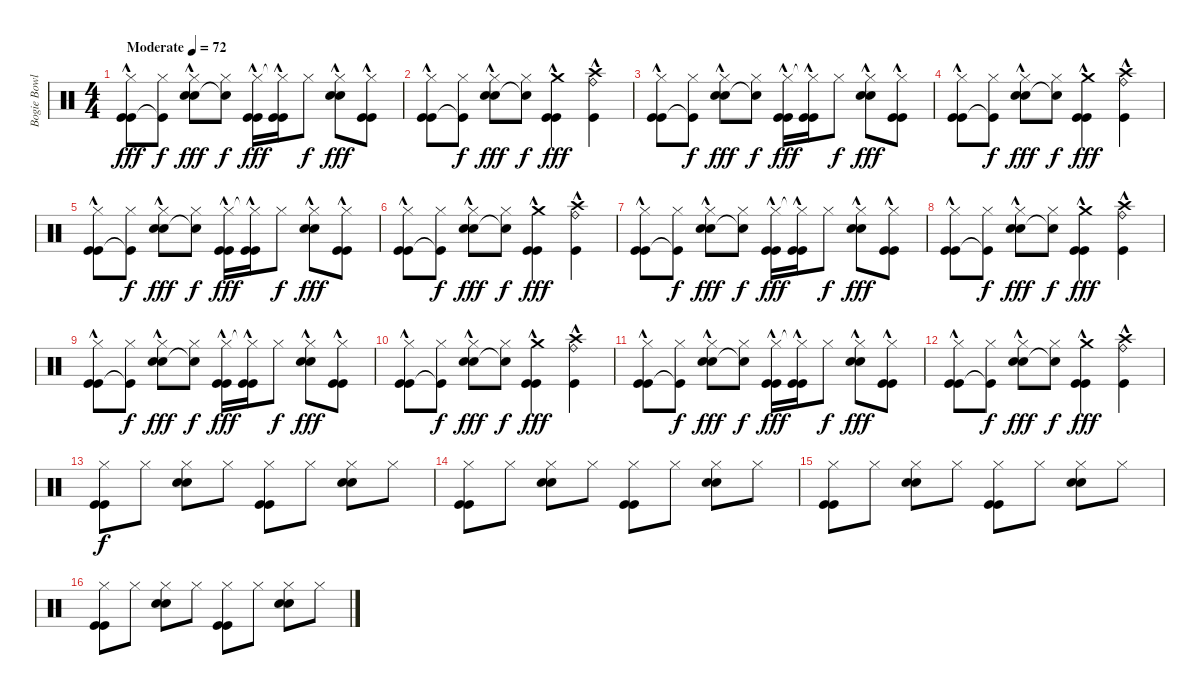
\track ("Bogie Bowles" "Bogie Bowl") {instrument percussion}
\staff {score}
\articulation defaults
\ts (4 4)
\tempo (72 "Moderate")
\clef neutral
\ks c
("Hi-Hat (closed)" "Kick (hit)"{hac} "Kick (hit)"{hac}).8{dy fff} ("Hi-Hat (closed)" "Kick (hit)"{t}).8{dy f} ("Hi-Hat (closed)" "Snare (hit) 2"{hac} "Snare (hit) 2"{hac}).8{dy fff} ("Hi-Hat (closed)" "Snare (hit) 2"{t}).8{dy f} ("Hi-Hat (closed)" "Kick (hit)"{hac} "Kick (hit)"{hac}).16{dy fff} ("Hi-Hat (closed)"{t} "Kick (hit)"{hac} "Kick (hit)"{hac}).16 "Hi-Hat (closed)".8{dy f} ("Hi-Hat (closed)" "Snare (hit) 2"{hac} "Snare (hit) 2"{hac}).8{dy fff} ("Hi-Hat (closed)" "Kick (hit)"{hac} "Kick (hit)"{hac}).8 |
("Hi-Hat (closed)" "Kick (hit)"{hac} "Kick (hit)"{hac}).8 ("Hi-Hat (closed)" "Kick (hit)"{t}).8{dy f} ("Hi-Hat (closed)" "Snare (hit) 2"{hac} "Snare (hit) 2"{hac}).8{dy fff} ("Hi-Hat (closed)" "Snare (hit) 2"{t}).8{dy f} ("Crash medium (hit)" "Kick (hit)"{hac} "Kick (hit)"{hac}).4{dy fff} ("Crash high (hit)" "Kick (hit)"{hac} "Ride (bell)"{hac}).4 |
("Hi-Hat (closed)" "Kick (hit)"{hac} "Kick (hit)"{hac}).8 ("Hi-Hat (closed)" "Kick (hit)"{t}).8{dy f} ("Hi-Hat (closed)" "Snare (hit) 2"{hac} "Snare (hit) 2"{hac}).8{dy fff} ("Hi-Hat (closed)" "Snare (hit) 2"{t}).8{dy f} ("Hi-Hat (closed)" "Kick (hit)"{hac} "Kick (hit)"{hac}).16{dy fff} ("Hi-Hat (closed)"{t} "Kick (hit)"{hac} "Kick (hit)"{hac}).16 "Hi-Hat (closed)".8{dy f} ("Hi-Hat (closed)" "Snare (hit) 2"{hac} "Snare (hit) 2"{hac}).8{dy fff} ("Hi-Hat (closed)" "Kick (hit)"{hac} "Kick (hit)"{hac}).8 |
("Hi-Hat (closed)" "Kick (hit)"{hac} "Kick (hit)"{hac}).8 ("Hi-Hat (closed)" "Kick (hit)"{t}).8{dy f} ("Hi-Hat (closed)" "Snare (hit) 2"{hac} "Snare (hit) 2"{hac}).8{dy fff} ("Hi-Hat (closed)" "Snare (hit) 2"{t}).8{dy f} ("Crash medium (hit)" "Kick (hit)"{hac} "Kick (hit)"{hac}).4{dy fff} ("Crash high (hit)" "Kick (hit)"{hac} "Ride (bell)"{hac}).4 |
("Hi-Hat (closed)" "Kick (hit)"{hac} "Kick (hit)"{hac}).8 ("Hi-Hat (closed)" "Kick (hit)"{t}).8{dy f} ("Hi-Hat (closed)" "Snare (hit) 2"{hac} "Snare (hit) 2"{hac}).8{dy fff} ("Hi-Hat (closed)" "Snare (hit) 2"{t}).8{dy f} ("Hi-Hat (closed)" "Kick (hit)"{hac} "Kick (hit)"{hac}).16{dy fff} ("Hi-Hat (closed)"{t} "Kick (hit)"{hac} "Kick (hit)"{hac}).16 "Hi-Hat (closed)".8{dy f} ("Hi-Hat (closed)" "Snare (hit) 2"{hac} "Snare (hit) 2"{hac}).8{dy fff} ("Hi-Hat (closed)" "Kick (hit)"{hac} "Kick (hit)"{hac}).8 |
("Hi-Hat (closed)" "Kick (hit)"{hac} "Kick (hit)"{hac}).8 ("Hi-Hat (closed)" "Kick (hit)"{t}).8{dy f} ("Hi-Hat (closed)" "Snare (hit) 2"{hac} "Snare (hit) 2"{hac}).8{dy fff} ("Hi-Hat (closed)" "Snare (hit) 2"{t}).8{dy f} ("Crash medium (hit)" "Kick (hit)"{hac} "Kick (hit)"{hac}).4{dy fff} ("Crash high (hit)" "Kick (hit)"{hac} "Ride (bell)"{hac}).4 |
("Hi-Hat (closed)" "Kick (hit)"{hac} "Kick (hit)"{hac}).8 ("Hi-Hat (closed)" "Kick (hit)"{t}).8{dy f} ("Hi-Hat (closed)" "Snare (hit) 2"{hac} "Snare (hit) 2"{hac}).8{dy fff} ("Hi-Hat (closed)" "Snare (hit) 2"{t}).8{dy f} ("Hi-Hat (closed)" "Kick (hit)"{hac} "Kick (hit)"{hac}).16{dy fff} ("Hi-Hat (closed)"{t} "Kick (hit)"{hac} "Kick (hit)"{hac}).16 "Hi-Hat (closed)".8{dy f} ("Hi-Hat (closed)" "Snare (hit) 2"{hac} "Snare (hit) 2"{hac}).8{dy fff} ("Hi-Hat (closed)" "Kick (hit)"{hac} "Kick (hit)"{hac}).8 |
("Hi-Hat (closed)" "Kick (hit)"{hac} "Kick (hit)"{hac}).8 ("Hi-Hat (closed)" "Kick (hit)"{t}).8{dy f} ("Hi-Hat (closed)" "Snare (hit) 2"{hac} "Snare (hit) 2"{hac}).8{dy fff} ("Hi-Hat (closed)" "Snare (hit) 2"{t}).8{dy f} ("Crash medium (hit)" "Kick (hit)"{hac} "Kick (hit)"{hac}).4{dy fff} ("Crash high (hit)" "Kick (hit)"{hac} "Ride (bell)"{hac}).4 |
("Hi-Hat (closed)" "Kick (hit)"{hac} "Kick (hit)"{hac}).8 ("Hi-Hat (closed)" "Kick (hit)"{t}).8{dy f} ("Hi-Hat (closed)" "Snare (hit) 2"{hac} "Snare (hit) 2"{hac}).8{dy fff} ("Hi-Hat (closed)" "Snare (hit) 2"{t}).8{dy f} ("Hi-Hat (closed)" "Kick (hit)"{hac} "Kick (hit)"{hac}).16{dy fff} ("Hi-Hat (closed)"{t} "Kick (hit)"{hac} "Kick (hit)"{hac}).16 "Hi-Hat (closed)".8{dy f} ("Hi-Hat (closed)" "Snare (hit) 2"{hac} "Snare (hit) 2"{hac}).8{dy fff} ("Hi-Hat (closed)" "Kick (hit)"{hac} "Kick (hit)"{hac}).8 |
("Hi-Hat (closed)" "Kick (hit)"{hac} "Kick (hit)"{hac}).8 ("Hi-Hat (closed)" "Kick (hit)"{t}).8{dy f} ("Hi-Hat (closed)" "Snare (hit) 2"{hac} "Snare (hit) 2"{hac}).8{dy fff} ("Hi-Hat (closed)" "Snare (hit) 2"{t}).8{dy f} ("Crash medium (hit)" "Kick (hit)"{hac} "Kick (hit)"{hac}).4{dy fff} ("Crash high (hit)" "Kick (hit)"{hac} "Ride (bell)"{hac}).4 |
("Hi-Hat (closed)" "Kick (hit)"{hac} "Kick (hit)"{hac}).8 ("Hi-Hat (closed)" "Kick (hit)"{t}).8{dy f} ("Hi-Hat (closed)" "Snare (hit) 2"{hac} "Snare (hit) 2"{hac}).8{dy fff} ("Hi-Hat (closed)" "Snare (hit) 2"{t}).8{dy f} ("Hi-Hat (closed)" "Kick (hit)"{hac} "Kick (hit)"{hac}).16{dy fff} ("Hi-Hat (closed)"{t} "Kick (hit)"{hac} "Kick (hit)"{hac}).16 "Hi-Hat (closed)".8{dy f} ("Hi-Hat (closed)" "Snare (hit) 2"{hac} "Snare (hit) 2"{hac}).8{dy fff} ("Hi-Hat (closed)" "Kick (hit)"{hac} "Kick (hit)"{hac}).8 |
("Hi-Hat (closed)" "Kick (hit)"{hac} "Kick (hit)"{hac}).8 ("Hi-Hat (closed)" "Kick (hit)"{t}).8{dy f} ("Hi-Hat (closed)" "Snare (hit) 2"{hac} "Snare (hit) 2"{hac}).8{dy fff} ("Hi-Hat (closed)" "Snare (hit) 2"{t}).8{dy f} ("Crash medium (hit)" "Kick (hit)"{hac} "Kick (hit)"{hac}).4{dy fff} ("Crash high (hit)" "Kick (hit)"{hac} "Ride (bell)"{hac}).4 |
("Hi-Hat (closed)" "Kick (hit)" "Kick (hit)").8{dy f} "Hi-Hat (closed)".8 ("Hi-Hat (closed)" "Snare (hit) 2" "Snare (hit) 2").8 "Hi-Hat (closed)".8 ("Hi-Hat (closed)" "Kick (hit)" "Kick (hit)").8 "Hi-Hat (closed)".8 ("Hi-Hat (closed)" "Snare (hit) 2" "Snare (hit) 2").8 "Hi-Hat (closed)".8 |
("Hi-Hat (closed)" "Kick (hit)" "Kick (hit)").8 "Hi-Hat (closed)".8 ("Hi-Hat (closed)" "Snare (hit) 2" "Snare (hit) 2").8 "Hi-Hat (closed)".8 ("Hi-Hat (closed)" "Kick (hit)" "Kick (hit)").8 "Hi-Hat (closed)".8 ("Hi-Hat (closed)" "Snare (hit) 2" "Snare (hit) 2").8 "Hi-Hat (closed)".8 |
("Hi-Hat (closed)" "Kick (hit)" "Kick (hit)").8 "Hi-Hat (closed)".8 ("Hi-Hat (closed)" "Snare (hit) 2" "Snare (hit) 2").8 "Hi-Hat (closed)".8 ("Hi-Hat (closed)" "Kick (hit)" "Kick (hit)").8 "Hi-Hat (closed)".8 ("Hi-Hat (closed)" "Snare (hit) 2" "Snare (hit) 2").8 "Hi-Hat (closed)".8 |
("Hi-Hat (closed)" "Kick (hit)" "Kick (hit)").8 "Hi-Hat (closed)".8 ("Hi-Hat (closed)" "Snare (hit) 2" "Snare (hit) 2").8 "Hi-Hat (closed)".8 ("Hi-Hat (closed)" "Kick (hit)" "Kick (hit)").8 "Hi-Hat (closed)".8 ("Hi-Hat (closed)" "Snare (hit) 2" "Snare (hit) 2").8 "Hi-Hat (closed)".8
